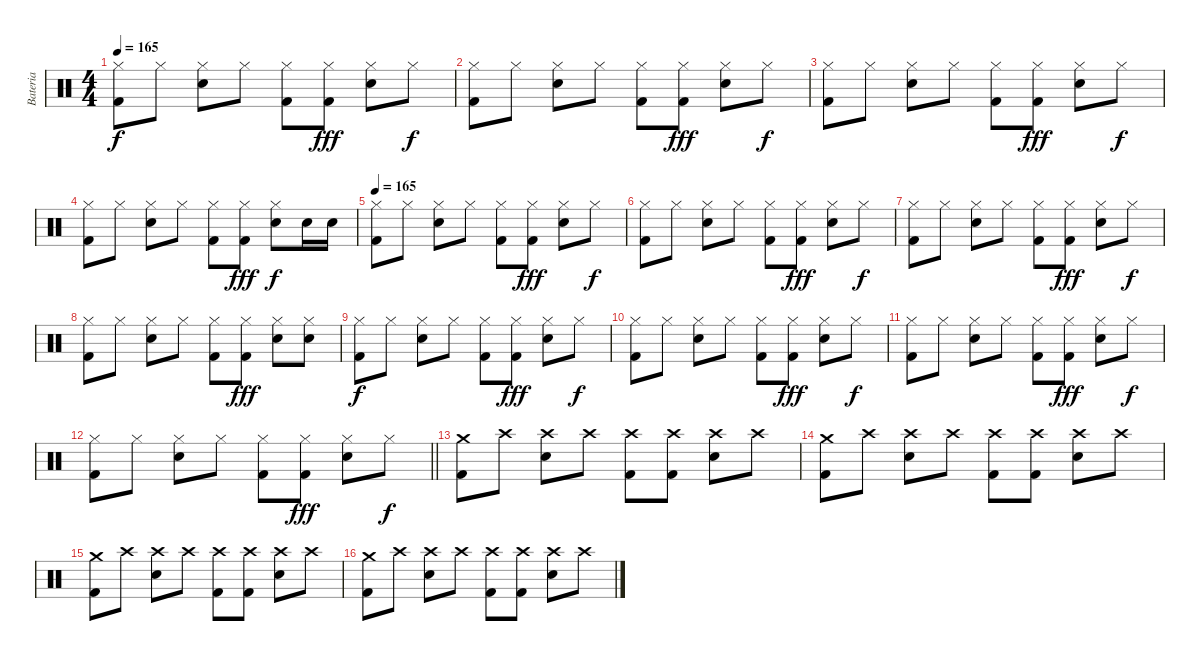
\track ("Bateria" "Bateria") {instrument percussion}
\staff {score}
\articulation defaults
\ts (4 4)
\tempo 165
\clef neutral
\ks c
("Hi-Hat (closed)" "Kick (hit) 2").8{dy f} "Hi-Hat (closed)".8 ("Hi-Hat (closed)" "Electric Snare (hit)").8 "Hi-Hat (closed)".8 ("Hi-Hat (closed)" "Kick (hit) 2").8 ("Hi-Hat (closed)" "Kick (hit) 2").8{dy fff} ("Hi-Hat (closed)" "Electric Snare (hit)").8 "Hi-Hat (closed)".8{dy f} |
("Hi-Hat (closed)" "Kick (hit) 2").8 "Hi-Hat (closed)".8 ("Hi-Hat (closed)" "Electric Snare (hit)").8 "Hi-Hat (closed)".8 ("Hi-Hat (closed)" "Kick (hit) 2").8 ("Hi-Hat (closed)" "Kick (hit) 2").8{dy fff} ("Hi-Hat (closed)" "Electric Snare (hit)").8 "Hi-Hat (closed)".8{dy f} |
("Hi-Hat (closed)" "Kick (hit) 2").8 "Hi-Hat (closed)".8 ("Hi-Hat (closed)" "Electric Snare (hit)").8 "Hi-Hat (closed)".8 ("Hi-Hat (closed)" "Kick (hit) 2").8 ("Hi-Hat (closed)" "Kick (hit) 2").8{dy fff} ("Hi-Hat (closed)" "Electric Snare (hit)").8 "Hi-Hat (closed)".8{dy f} |
("Hi-Hat (closed)" "Kick (hit) 2").8 "Hi-Hat (closed)".8 ("Hi-Hat (closed)" "Electric Snare (hit)").8 "Hi-Hat (closed)".8 ("Hi-Hat (closed)" "Kick (hit) 2").8 ("Hi-Hat (closed)" "Kick (hit) 2").8{dy fff} ("Hi-Hat (closed)" "Electric Snare (hit)").8{dy f} "Electric Snare (hit)".16 "Electric Snare (hit)".16 |
\tempo 165
("Hi-Hat (closed)" "Kick (hit) 2").8 "Hi-Hat (closed)".8 ("Hi-Hat (closed)" "Electric Snare (hit)").8 "Hi-Hat (closed)".8 ("Hi-Hat (closed)" "Kick (hit) 2").8 ("Hi-Hat (closed)" "Kick (hit) 2").8{dy fff} ("Hi-Hat (closed)" "Electric Snare (hit)").8 "Hi-Hat (closed)".8{dy f} |
("Hi-Hat (closed)" "Kick (hit) 2").8 "Hi-Hat (closed)".8 ("Hi-Hat (closed)" "Electric Snare (hit)").8 "Hi-Hat (closed)".8 ("Hi-Hat (closed)" "Kick (hit) 2").8 ("Hi-Hat (closed)" "Kick (hit) 2").8{dy fff} ("Hi-Hat (closed)" "Electric Snare (hit)").8 "Hi-Hat (closed)".8{dy f} |
("Hi-Hat (closed)" "Kick (hit) 2").8 "Hi-Hat (closed)".8 ("Hi-Hat (closed)" "Electric Snare (hit)").8 "Hi-Hat (closed)".8 ("Hi-Hat (closed)" "Kick (hit) 2").8 ("Hi-Hat (closed)" "Kick (hit) 2").8{dy fff} ("Hi-Hat (closed)" "Electric Snare (hit)").8 "Hi-Hat (closed)".8{dy f} |
("Hi-Hat (closed)" "Kick (hit) 2").8 "Hi-Hat (closed)".8 ("Hi-Hat (closed)" "Electric Snare (hit)").8 "Hi-Hat (closed)".8 ("Hi-Hat (closed)" "Kick (hit) 2").8 ("Hi-Hat (closed)" "Kick (hit) 2").8{dy fff} ("Hi-Hat (closed)" "Electric Snare (hit)").8 ("Hi-Hat (closed)" "Electric Snare (hit)").8 |
("Hi-Hat (closed)" "Kick (hit) 2").8{dy f} "Hi-Hat (closed)".8 ("Hi-Hat (closed)" "Electric Snare (hit)").8 "Hi-Hat (closed)".8 ("Hi-Hat (closed)" "Kick (hit) 2").8 ("Hi-Hat (closed)" "Kick (hit) 2").8{dy fff} ("Hi-Hat (closed)" "Electric Snare (hit)").8 "Hi-Hat (closed)".8{dy f} |
("Hi-Hat (closed)" "Kick (hit) 2").8 "Hi-Hat (closed)".8 ("Hi-Hat (closed)" "Electric Snare (hit)").8 "Hi-Hat (closed)".8 ("Hi-Hat (closed)" "Kick (hit) 2").8 ("Hi-Hat (closed)" "Kick (hit) 2").8{dy fff} ("Hi-Hat (closed)" "Electric Snare (hit)").8 "Hi-Hat (closed)".8{dy f} |
("Hi-Hat (closed)" "Kick (hit) 2").8 "Hi-Hat (closed)".8 ("Hi-Hat (closed)" "Electric Snare (hit)").8 "Hi-Hat (closed)".8 ("Hi-Hat (closed)" "Kick (hit) 2").8 ("Hi-Hat (closed)" "Kick (hit) 2").8{dy fff} ("Hi-Hat (closed)" "Electric Snare (hit)").8 "Hi-Hat (closed)".8{dy f} |
\barLineRight lightlight
("Hi-Hat (closed)" "Kick (hit) 2").8 "Hi-Hat (closed)".8 ("Hi-Hat (closed)" "Electric Snare (hit)").8 "Hi-Hat (closed)".8 ("Hi-Hat (closed)" "Kick (hit) 2").8 ("Hi-Hat (closed)" "Kick (hit) 2").8{dy fff} ("Hi-Hat (closed)" "Electric Snare (hit)").8 "Hi-Hat (closed)".8{dy f} |
("Crash medium (hit)" "Kick (hit) 2").8 "Crash high (hit)".8 ("Crash high (hit)" "Electric Snare (hit)").8 "Crash high (hit)".8 ("Crash high (hit)" "Kick (hit) 2").8 ("Crash high (hit)" "Kick (hit) 2").8 ("Crash high (hit)" "Electric Snare (hit)").8 "Crash high (hit)".8 |
("Crash medium (hit)" "Kick (hit) 2").8 "Crash high (hit)".8 ("Crash high (hit)" "Electric Snare (hit)").8 "Crash high (hit)".8 ("Crash high (hit)" "Kick (hit) 2").8 ("Crash high (hit)" "Kick (hit) 2").8 ("Crash high (hit)" "Electric Snare (hit)").8 "Crash high (hit)".8 |
("Crash medium (hit)" "Kick (hit) 2").8 "Crash high (hit)".8 ("Crash high (hit)" "Electric Snare (hit)").8 "Crash high (hit)".8 ("Crash high (hit)" "Kick (hit) 2").8 ("Crash high (hit)" "Kick (hit) 2").8 ("Crash high (hit)" "Electric Snare (hit)").8 "Crash high (hit)".8 |
("Crash medium (hit)" "Kick (hit) 2").8 "Crash high (hit)".8 ("Crash high (hit)" "Electric Snare (hit)").8 "Crash high (hit)".8 ("Crash high (hit)" "Kick (hit) 2").8 ("Crash high (hit)" "Kick (hit) 2").8 ("Crash high (hit)" "Electric Snare (hit)").8 "Crash high (hit)".8
